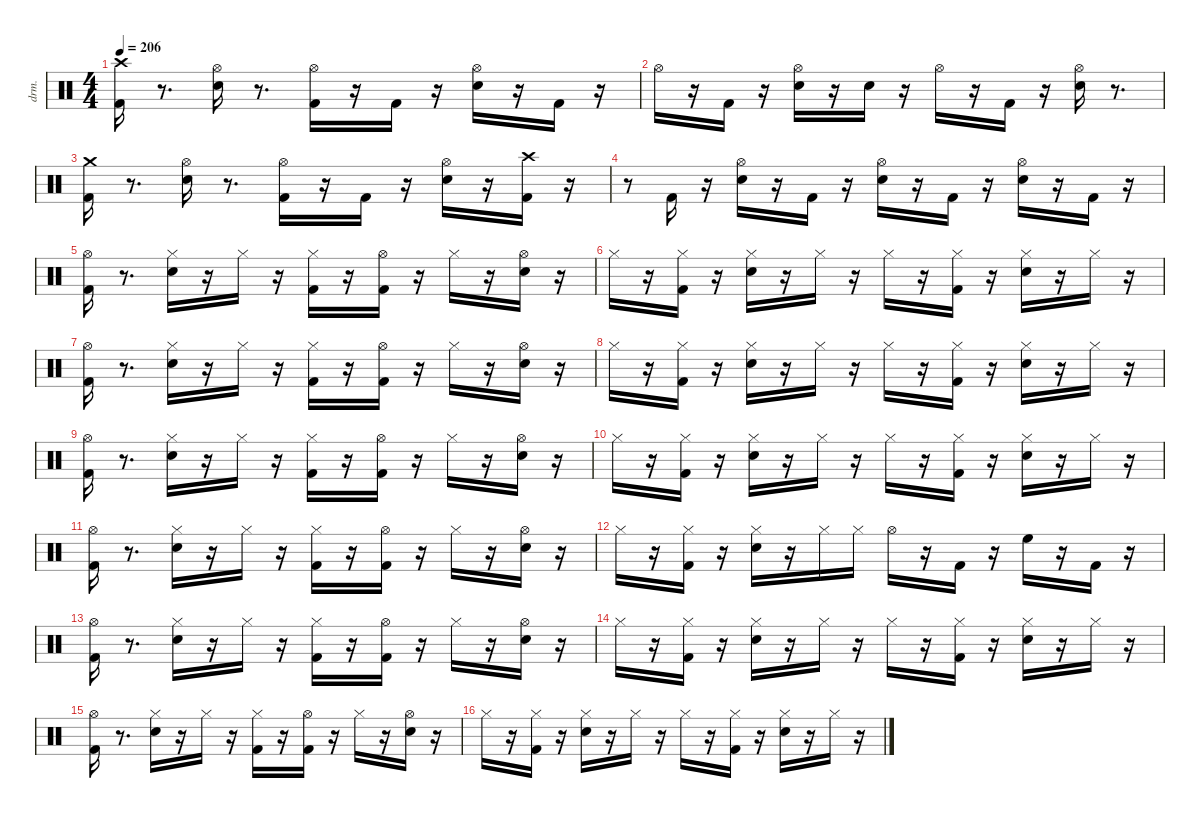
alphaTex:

\defaultSystemsLayout 4
\hideDynamics
\bracketExtendMode nobrackets
\otherSystemsTrackNameOrientation horizontal
\track ("EZdrummer 3" "drm.") {instrument percussion}
\staff {score}
\articulation defaults
\ts (4 4)
\tempo 206
\clef neutral
\ks aminor
("Kick (hit) 2" "Crash high (hit)"{acc #}).16{dy ff beam Down} r.8{d beam Down} ("Snare (hit) 2" "Hi-Hat (open)"{acc #}).16{beam Down} r.8{d beam Down} ("Kick (hit) 2" "Hi-Hat (open)"{acc #}).16{dy f beam Down} r.16{beam Down} "Kick (hit) 2".16{dy ff beam Down} r.16{beam Down} ("Snare (hit) 2" "Hi-Hat (open)"{acc #}).16{beam Down} r.16{beam Down} "Kick (hit) 2".16{beam Down} r.16{beam Down} |
"Hi-Hat (open)"{acc #}.16{dy fff beam Down} r.16{beam Down} "Kick (hit) 2".16{dy ff beam Down} r.16{beam Down} ("Snare (hit) 2" "Hi-Hat (open)"{acc #}).16{beam Down} r.16{beam Down} "Snare (hit) 2".16{dy p beam Down} r.16{beam Down} "Hi-Hat (open)"{acc #}.16{dy ff beam Down} r.16{beam Down} "Kick (hit) 2".16{beam Down} r.16{beam Down} ("Snare (hit) 2" "Hi-Hat (open)"{acc #}).16{beam Down} r.8{d beam Down} |
("Kick (hit) 2" "Crash medium (hit)").16{beam Down} r.8{d beam Down} ("Snare (hit) 2" "Hi-Hat (open)"{acc #}).16{beam Down} r.8{d beam Down} ("Kick (hit) 2" "Hi-Hat (open)"{acc #}).16{dy f beam Down} r.16{beam Down} "Kick (hit) 2".16{dy ff beam Down} r.16{beam Down} ("Snare (hit) 2" "Hi-Hat (open)"{acc #}).16{beam Down} r.16{beam Down} ("Kick (hit) 2" "Crash high (hit)"{acc #}).16{beam Down} r.16{beam Down} |
r.8{beam Down} "Kick (hit) 2".16{beam Up} r.16{beam Up} ("Snare (hit) 2" "Hi-Hat (open)"{acc #}).16{beam Down} r.16{beam Down} "Kick (hit) 2".16{beam Down} r.16{beam Down} ("Snare (hit) 2" "Hi-Hat (open)"{acc #}).16{beam Down} r.16{beam Down} "Kick (hit) 2".16{beam Down} r.16{beam Down} ("Snare (hit) 2" "Hi-Hat (open)"{acc #}).16{beam Down} r.16{beam Down} "Kick (hit) 2".16{dy pp beam Down} r.16{beam Down} |
("Kick (hit) 2" "Hi-Hat (open)"{acc #}).16{dy ff beam Down} r.8{d beam Down} ("Snare (hit) 2" "Hi-Hat (closed)"{acc #}).16{beam Down} r.16{beam Down} "Hi-Hat (closed)"{acc #}.16{dy p beam Down} r.16{beam Down} ("Kick (hit) 2" "Hi-Hat (closed)"{acc #}).16{dy ff beam Down} r.16{beam Down} ("Kick (hit) 2" "Hi-Hat (open)"{acc #}).16{beam Down} r.16{beam Down} "Hi-Hat (closed)"{acc #}.16{dy p beam Down} r.16{beam Down} ("Snare (hit) 2" "Hi-Hat (open)"{acc #}).16{dy ff beam Down} r.16{beam Down} |
"Hi-Hat (closed)"{acc #}.16{dy p beam Down} r.16{beam Down} ("Kick (hit) 2" "Hi-Hat (closed)"{acc #}).16{dy ff beam Down} r.16{beam Down} ("Snare (hit) 2" "Hi-Hat (closed)"{acc #}).16{beam Down} r.16{beam Down} "Hi-Hat (closed)"{acc #}.16{dy p beam Down} r.16{beam Down} "Hi-Hat (closed)"{acc #}.16{dy fff beam Down} r.16{beam Down} ("Kick (hit) 2" "Hi-Hat (closed)"{acc #}).16{dy ff beam Down} r.16{beam Down} ("Snare (hit) 2" "Hi-Hat (closed)"{acc #}).16{beam Down} r.16{beam Down} "Hi-Hat (closed)"{acc #}.16{dy p beam Down} r.16{beam Down} |
("Kick (hit) 2" "Hi-Hat (open)"{acc #}).16{dy ff beam Down} r.8{d beam Down} ("Snare (hit) 2" "Hi-Hat (closed)"{acc #}).16{beam Down} r.16{beam Down} "Hi-Hat (closed)"{acc #}.16{dy p beam Down} r.16{beam Down} ("Kick (hit) 2" "Hi-Hat (closed)"{acc #}).16{dy ff beam Down} r.16{beam Down} ("Kick (hit) 2" "Hi-Hat (open)"{acc #}).16{beam Down} r.16{beam Down} "Hi-Hat (closed)"{acc #}.16{dy p beam Down} r.16{beam Down} ("Snare (hit) 2" "Hi-Hat (open)"{acc #}).16{dy ff beam Down} r.16{beam Down} |
"Hi-Hat (closed)"{acc #}.16{dy p beam Down} r.16{beam Down} ("Kick (hit) 2" "Hi-Hat (closed)"{acc #}).16{dy ff beam Down} r.16{beam Down} ("Snare (hit) 2" "Hi-Hat (closed)"{acc #}).16{beam Down} r.16{beam Down} "Hi-Hat (closed)"{acc #}.16{dy p beam Down} r.16{beam Down} "Hi-Hat (closed)"{acc #}.16{dy fff beam Down} r.16{beam Down} ("Kick (hit) 2" "Hi-Hat (closed)"{acc #}).16{dy ff beam Down} r.16{beam Down} ("Snare (hit) 2" "Hi-Hat (closed)"{acc #}).16{beam Down} r.16{beam Down} "Hi-Hat (closed)"{acc #}.16{dy p beam Down} r.16{beam Down} |
("Kick (hit) 2" "Hi-Hat (open)"{acc #}).16{dy ff beam Down} r.8{d beam Down} ("Snare (hit) 2" "Hi-Hat (closed)"{acc #}).16{beam Down} r.16{beam Down} "Hi-Hat (closed)"{acc #}.16{dy p beam Down} r.16{beam Down} ("Kick (hit) 2" "Hi-Hat (closed)"{acc #}).16{dy ff beam Down} r.16{beam Down} ("Kick (hit) 2" "Hi-Hat (open)"{acc #}).16{beam Down} r.16{beam Down} "Hi-Hat (closed)"{acc #}.16{dy p beam Down} r.16{beam Down} ("Snare (hit) 2" "Hi-Hat (open)"{acc #}).16{dy ff beam Down} r.16{beam Down} |
"Hi-Hat (closed)"{acc #}.16{dy p beam Down} r.16{beam Down} ("Kick (hit) 2" "Hi-Hat (closed)"{acc #}).16{dy ff beam Down} r.16{beam Down} ("Snare (hit) 2" "Hi-Hat (closed)"{acc #}).16{beam Down} r.16{beam Down} "Hi-Hat (closed)"{acc #}.16{dy p beam Down} r.16{beam Down} "Hi-Hat (closed)"{acc #}.16{dy fff beam Down} r.16{beam Down} ("Kick (hit) 2" "Hi-Hat (closed)"{acc #}).16{dy ff beam Down} r.16{beam Down} ("Snare (hit) 2" "Hi-Hat (closed)"{acc #}).16{beam Down} r.16{beam Down} "Hi-Hat (closed)"{acc #}.16{dy p beam Down} r.16{beam Down} |
("Kick (hit) 2" "Hi-Hat (open)"{acc #}).16{dy ff beam Down} r.8{d beam Down} ("Snare (hit) 2" "Hi-Hat (closed)"{acc #}).16{beam Down} r.16{beam Down} "Hi-Hat (closed)"{acc #}.16{dy p beam Down} r.16{beam Down} ("Kick (hit) 2" "Hi-Hat (closed)"{acc #}).16{dy ff beam Down} r.16{beam Down} ("Kick (hit) 2" "Hi-Hat (open)"{acc #}).16{beam Down} r.16{beam Down} "Hi-Hat (closed)"{acc #}.16{dy p beam Down} r.16{beam Down} ("Snare (hit) 2" "Hi-Hat (open)"{acc #}).16{dy ff beam Down} r.16{beam Down} |
"Hi-Hat (closed)"{acc #}.16{dy p beam Down} r.16{beam Down} ("Kick (hit) 2" "Hi-Hat (closed)"{acc #}).16{dy ff beam Down} r.16{beam Down} ("Snare (hit) 2" "Hi-Hat (closed)"{acc #}).16{beam Down} r.16{beam Down} "Hi-Hat (closed)"{acc #}.16{dy fff beam Down} "Hi-Hat (closed)"{acc #}.16{beam Down} "Hi-Hat (open)"{acc #}.16{beam Down} r.16{beam Down} "Kick (hit) 2".16{dy ff beam Down} r.16{beam Down} "High Floor Tom (hit)".16{dy f beam Down} r.16{beam Down} "Kick (hit) 2".16{beam Down} r.16{beam Down} |
("Kick (hit) 2" "Hi-Hat (open)"{acc #}).16{dy ff beam Down} r.8{d beam Down} ("Snare (hit) 2" "Hi-Hat (closed)"{acc #}).16{beam Down} r.16{beam Down} "Hi-Hat (closed)"{acc #}.16{dy p beam Down} r.16{beam Down} ("Kick (hit) 2" "Hi-Hat (closed)"{acc #}).16{dy ff beam Down} r.16{beam Down} ("Kick (hit) 2" "Hi-Hat (open)"{acc #}).16{beam Down} r.16{beam Down} "Hi-Hat (closed)"{acc #}.16{dy p beam Down} r.16{beam Down} ("Snare (hit) 2" "Hi-Hat (open)"{acc #}).16{dy ff beam Down} r.16{beam Down} |
"Hi-Hat (closed)"{acc #}.16{dy p beam Down} r.16{beam Down} ("Kick (hit) 2" "Hi-Hat (closed)"{acc #}).16{dy ff beam Down} r.16{beam Down} ("Snare (hit) 2" "Hi-Hat (closed)"{acc #}).16{beam Down} r.16{beam Down} "Hi-Hat (closed)"{acc #}.16{dy p beam Down} r.16{beam Down} "Hi-Hat (closed)"{acc #}.16{dy fff beam Down} r.16{beam Down} ("Kick (hit) 2" "Hi-Hat (closed)"{acc #}).16{dy ff beam Down} r.16{beam Down} ("Snare (hit) 2" "Hi-Hat (closed)"{acc #}).16{beam Down} r.16{beam Down} "Hi-Hat (closed)"{acc #}.16{dy p beam Down} r.16{beam Down} |
("Kick (hit) 2" "Hi-Hat (open)"{acc #}).16{dy ff beam Down} r.8{d beam Down} ("Snare (hit) 2" "Hi-Hat (closed)"{acc #}).16{beam Down} r.16{beam Down} "Hi-Hat (closed)"{acc #}.16{dy p beam Down} r.16{beam Down} ("Kick (hit) 2" "Hi-Hat (closed)"{acc #}).16{dy ff beam Down} r.16{beam Down} ("Kick (hit) 2" "Hi-Hat (open)"{acc #}).16{beam Down} r.16{beam Down} "Hi-Hat (closed)"{acc #}.16{dy p beam Down} r.16{beam Down} ("Snare (hit) 2" "Hi-Hat (open)"{acc #}).16{dy ff beam Down} r.16{beam Down} |
"Hi-Hat (closed)"{acc #}.16{dy p beam Down} r.16{beam Down} ("Kick (hit) 2" "Hi-Hat (closed)"{acc #}).16{dy ff beam Down} r.16{beam Down} ("Snare (hit) 2" "Hi-Hat (closed)"{acc #}).16{beam Down} r.16{beam Down} "Hi-Hat (closed)"{acc #}.16{dy p beam Down} r.16{beam Down} "Hi-Hat (closed)"{acc #}.16{dy fff beam Down} r.16{beam Down} ("Kick (hit) 2" "Hi-Hat (closed)"{acc #}).16{dy ff beam Down} r.16{beam Down} ("Snare (hit) 2" "Hi-Hat (closed)"{acc #}).16{beam Down} r.16{beam Down} "Hi-Hat (closed)"{acc #}.16{dy p beam Down} r.16{beam Down}
